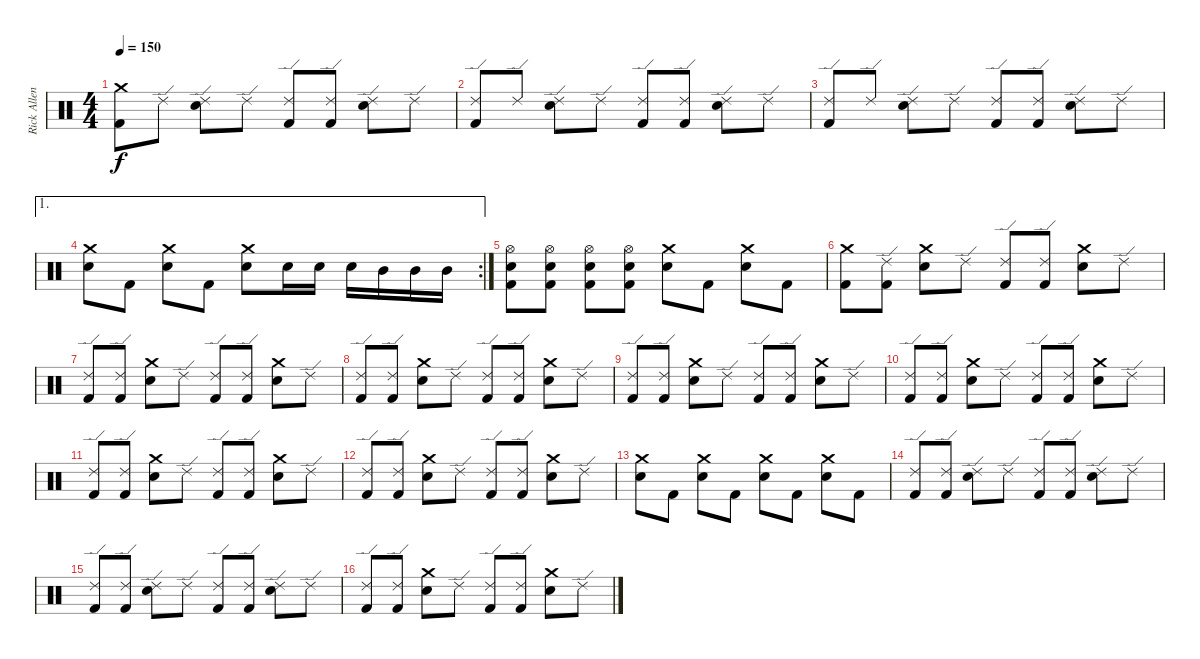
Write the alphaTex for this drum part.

\track ("Rick Allen" "Rick Allen") {instrument percussion}
\staff {score}
\articulation defaults
\ts (4 4)
\tempo 150
\clef neutral
\ks c
("Crash medium (hit)" "Kick (hit) 2").8{dy f} "Ride (edge) 2".8 ("Ride (edge) 2" "Snare (hit) 2").8 "Ride (edge) 2".8 ("Ride (edge) 2" "Kick (hit) 2").8 ("Ride (edge) 2" "Kick (hit) 2").8 ("Ride (edge) 2" "Snare (hit) 2").8 "Ride (edge) 2".8 |
("Ride (edge) 2" "Kick (hit) 2").8 "Ride (edge) 2".8 ("Ride (edge) 2" "Snare (hit) 2").8 "Ride (edge) 2".8 ("Ride (edge) 2" "Kick (hit) 2").8 ("Ride (edge) 2" "Kick (hit) 2").8 ("Ride (edge) 2" "Snare (hit) 2").8 "Ride (edge) 2".8 |
("Ride (edge) 2" "Kick (hit) 2").8 "Ride (edge) 2".8 ("Ride (edge) 2" "Snare (hit) 2").8 "Ride (edge) 2".8 ("Ride (edge) 2" "Kick (hit) 2").8 ("Ride (edge) 2" "Kick (hit) 2").8 ("Ride (edge) 2" "Snare (hit) 2").8 "Ride (edge) 2".8 |
\ae 1
\rc 2
("Crash medium (hit)" "Snare (hit) 2").8 "Kick (hit) 2".8 ("Crash medium (hit)" "Snare (hit) 2").8 "Kick (hit) 2".8 ("Crash medium (hit)" "Snare (hit) 2").8 "Snare (hit) 2".16 "Snare (hit) 2".16 "Snare (hit) 2".16 "Mid Tom (hit)".16 "Mid Tom (hit)".16 "Mid Tom (hit)".16 |
("Hi-Hat (open)" "Snare (hit) 2" "Kick (hit) 2").8 ("Hi-Hat (open)" "Snare (hit) 2" "Kick (hit) 2").8 ("Hi-Hat (open)" "Snare (hit) 2" "Kick (hit) 2").8 ("Hi-Hat (open)" "Snare (hit) 2" "Kick (hit) 2").8 ("Crash medium (hit)" "Snare (hit) 2").8 "Kick (hit) 2".8 ("Crash medium (hit)" "Snare (hit) 2").8 "Kick (hit) 2".8 |
("Crash medium (hit)" "Kick (hit) 2").8 ("Ride (edge) 2" "Kick (hit) 2").8 ("Crash medium (hit)" "Snare (hit) 2").8 "Ride (edge) 2".8 ("Ride (edge) 2" "Kick (hit) 2").8 ("Ride (edge) 2" "Kick (hit) 2").8 ("Crash medium (hit)" "Snare (hit) 2").8 "Ride (edge) 2".8 |
("Ride (edge) 2" "Kick (hit) 2").8 ("Ride (edge) 2" "Kick (hit) 2").8 ("Crash medium (hit)" "Snare (hit) 2").8 "Ride (edge) 2".8 ("Ride (edge) 2" "Kick (hit) 2").8 ("Ride (edge) 2" "Kick (hit) 2").8 ("Crash medium (hit)" "Snare (hit) 2").8 "Ride (edge) 2".8 |
("Ride (edge) 2" "Kick (hit) 2").8 ("Ride (edge) 2" "Kick (hit) 2").8 ("Crash medium (hit)" "Snare (hit) 2").8 "Ride (edge) 2".8 ("Ride (edge) 2" "Kick (hit) 2").8 ("Ride (edge) 2" "Kick (hit) 2").8 ("Crash medium (hit)" "Snare (hit) 2").8 "Ride (edge) 2".8 |
("Ride (edge) 2" "Kick (hit) 2").8 ("Ride (edge) 2" "Kick (hit) 2").8 ("Crash medium (hit)" "Snare (hit) 2").8 "Ride (edge) 2".8 ("Ride (edge) 2" "Kick (hit) 2").8 ("Ride (edge) 2" "Kick (hit) 2").8 ("Crash medium (hit)" "Snare (hit) 2").8 "Ride (edge) 2".8 |
("Ride (edge) 2" "Kick (hit) 2").8 ("Ride (edge) 2" "Kick (hit) 2").8 ("Crash medium (hit)" "Snare (hit) 2").8 "Ride (edge) 2".8 ("Ride (edge) 2" "Kick (hit) 2").8 ("Ride (edge) 2" "Kick (hit) 2").8 ("Crash medium (hit)" "Snare (hit) 2").8 "Ride (edge) 2".8 |
("Ride (edge) 2" "Kick (hit) 2").8 ("Ride (edge) 2" "Kick (hit) 2").8 ("Crash medium (hit)" "Snare (hit) 2").8 "Ride (edge) 2".8 ("Ride (edge) 2" "Kick (hit) 2").8 ("Ride (edge) 2" "Kick (hit) 2").8 ("Crash medium (hit)" "Snare (hit) 2").8 "Ride (edge) 2".8 |
("Ride (edge) 2" "Kick (hit) 2").8 ("Ride (edge) 2" "Kick (hit) 2").8 ("Crash medium (hit)" "Snare (hit) 2").8 "Ride (edge) 2".8 ("Ride (edge) 2" "Kick (hit) 2").8 ("Ride (edge) 2" "Kick (hit) 2").8 ("Crash medium (hit)" "Snare (hit) 2").8 "Ride (edge) 2".8 |
("Crash medium (hit)" "Snare (hit) 2").8 "Kick (hit) 2".8 ("Crash medium (hit)" "Snare (hit) 2").8 "Kick (hit) 2".8 ("Crash medium (hit)" "Snare (hit) 2").8 "Kick (hit) 2".8 ("Crash medium (hit)" "Snare (hit) 2").8 "Kick (hit) 2".8 |
("Ride (edge) 2" "Kick (hit) 2").8 ("Ride (edge) 2" "Kick (hit) 2").8 ("Ride (edge) 2" "Snare (hit) 2").8 "Ride (edge) 2".8 ("Ride (edge) 2" "Kick (hit) 2").8 ("Ride (edge) 2" "Kick (hit) 2").8 ("Ride (edge) 2" "Snare (hit) 2").8 "Ride (edge) 2".8 |
("Ride (edge) 2" "Kick (hit) 2").8 ("Ride (edge) 2" "Kick (hit) 2").8 ("Ride (edge) 2" "Snare (hit) 2").8 "Ride (edge) 2".8 ("Ride (edge) 2" "Kick (hit) 2").8 ("Ride (edge) 2" "Kick (hit) 2").8 ("Ride (edge) 2" "Snare (hit) 2").8 "Ride (edge) 2".8 |
("Ride (edge) 2" "Kick (hit) 2").8 ("Ride (edge) 2" "Kick (hit) 2").8 ("Crash medium (hit)" "Snare (hit) 2").8 "Ride (edge) 2".8 ("Ride (edge) 2" "Kick (hit) 2").8 ("Ride (edge) 2" "Kick (hit) 2").8 ("Crash medium (hit)" "Snare (hit) 2").8 "Ride (edge) 2".8
